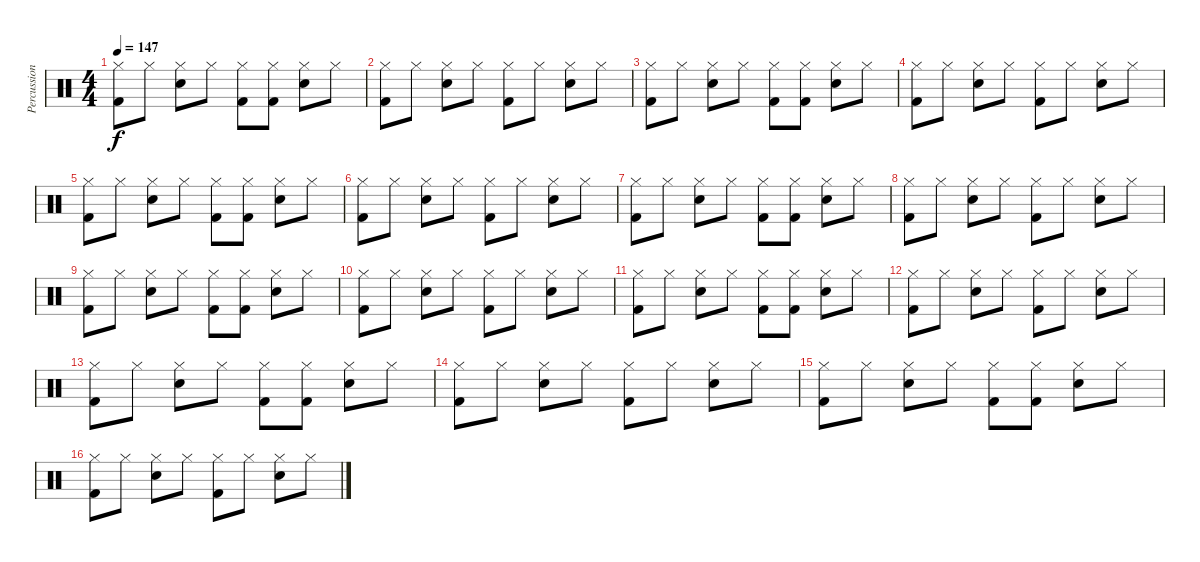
\track ("Percussions" "Percussion") {instrument percussion}
\staff {score}
\articulation defaults
\ts (4 4)
\tempo 147
\clef neutral
\ks c
("Kick (hit) 2" "Hi-Hat (closed)").8{dy f} "Hi-Hat (closed)".8 ("Electric Snare (hit)" "Hi-Hat (closed)").8 "Hi-Hat (closed)".8 ("Kick (hit) 2" "Hi-Hat (closed)").8 ("Kick (hit) 2" "Hi-Hat (closed)").8 ("Electric Snare (hit)" "Hi-Hat (closed)").8 "Hi-Hat (closed)".8 |
("Kick (hit) 2" "Hi-Hat (closed)").8 "Hi-Hat (closed)".8 ("Electric Snare (hit)" "Hi-Hat (closed)").8 "Hi-Hat (closed)".8 ("Kick (hit) 2" "Hi-Hat (closed)").8 "Hi-Hat (closed)".8 ("Electric Snare (hit)" "Hi-Hat (closed)").8 "Hi-Hat (closed)".8 |
("Kick (hit) 2" "Hi-Hat (closed)").8 "Hi-Hat (closed)".8 ("Electric Snare (hit)" "Hi-Hat (closed)").8 "Hi-Hat (closed)".8 ("Kick (hit) 2" "Hi-Hat (closed)").8 ("Kick (hit) 2" "Hi-Hat (closed)").8 ("Electric Snare (hit)" "Hi-Hat (closed)").8 "Hi-Hat (closed)".8 |
("Kick (hit) 2" "Hi-Hat (closed)").8 "Hi-Hat (closed)".8 ("Electric Snare (hit)" "Hi-Hat (closed)").8 "Hi-Hat (closed)".8 ("Kick (hit) 2" "Hi-Hat (closed)").8 "Hi-Hat (closed)".8 ("Electric Snare (hit)" "Hi-Hat (closed)").8 "Hi-Hat (closed)".8 |
("Kick (hit) 2" "Hi-Hat (closed)").8 "Hi-Hat (closed)".8 ("Electric Snare (hit)" "Hi-Hat (closed)").8 "Hi-Hat (closed)".8 ("Kick (hit) 2" "Hi-Hat (closed)").8 ("Kick (hit) 2" "Hi-Hat (closed)").8 ("Electric Snare (hit)" "Hi-Hat (closed)").8 "Hi-Hat (closed)".8 |
("Kick (hit) 2" "Hi-Hat (closed)").8 "Hi-Hat (closed)".8 ("Electric Snare (hit)" "Hi-Hat (closed)").8 "Hi-Hat (closed)".8 ("Kick (hit) 2" "Hi-Hat (closed)").8 "Hi-Hat (closed)".8 ("Electric Snare (hit)" "Hi-Hat (closed)").8 "Hi-Hat (closed)".8 |
("Kick (hit) 2" "Hi-Hat (closed)").8 "Hi-Hat (closed)".8 ("Electric Snare (hit)" "Hi-Hat (closed)").8 "Hi-Hat (closed)".8 ("Kick (hit) 2" "Hi-Hat (closed)").8 ("Kick (hit) 2" "Hi-Hat (closed)").8 ("Electric Snare (hit)" "Hi-Hat (closed)").8 "Hi-Hat (closed)".8 |
("Kick (hit) 2" "Hi-Hat (closed)").8 "Hi-Hat (closed)".8 ("Electric Snare (hit)" "Hi-Hat (closed)").8 "Hi-Hat (closed)".8 ("Kick (hit) 2" "Hi-Hat (closed)").8 "Hi-Hat (closed)".8 ("Electric Snare (hit)" "Hi-Hat (closed)").8 "Hi-Hat (closed)".8 |
("Kick (hit) 2" "Hi-Hat (closed)").8 "Hi-Hat (closed)".8 ("Electric Snare (hit)" "Hi-Hat (closed)").8 "Hi-Hat (closed)".8 ("Kick (hit) 2" "Hi-Hat (closed)").8 ("Kick (hit) 2" "Hi-Hat (closed)").8 ("Electric Snare (hit)" "Hi-Hat (closed)").8 "Hi-Hat (closed)".8 |
("Kick (hit) 2" "Hi-Hat (closed)").8 "Hi-Hat (closed)".8 ("Electric Snare (hit)" "Hi-Hat (closed)").8 "Hi-Hat (closed)".8 ("Kick (hit) 2" "Hi-Hat (closed)").8 "Hi-Hat (closed)".8 ("Electric Snare (hit)" "Hi-Hat (closed)").8 "Hi-Hat (closed)".8 |
("Kick (hit) 2" "Hi-Hat (closed)").8 "Hi-Hat (closed)".8 ("Electric Snare (hit)" "Hi-Hat (closed)").8 "Hi-Hat (closed)".8 ("Kick (hit) 2" "Hi-Hat (closed)").8 ("Kick (hit) 2" "Hi-Hat (closed)").8 ("Electric Snare (hit)" "Hi-Hat (closed)").8 "Hi-Hat (closed)".8 |
("Kick (hit) 2" "Hi-Hat (closed)").8 "Hi-Hat (closed)".8 ("Electric Snare (hit)" "Hi-Hat (closed)").8 "Hi-Hat (closed)".8 ("Kick (hit) 2" "Hi-Hat (closed)").8 "Hi-Hat (closed)".8 ("Electric Snare (hit)" "Hi-Hat (closed)").8 "Hi-Hat (closed)".8 |
("Kick (hit) 2" "Hi-Hat (closed)").8 "Hi-Hat (closed)".8 ("Electric Snare (hit)" "Hi-Hat (closed)").8 "Hi-Hat (closed)".8 ("Kick (hit) 2" "Hi-Hat (closed)").8 ("Kick (hit) 2" "Hi-Hat (closed)").8 ("Electric Snare (hit)" "Hi-Hat (closed)").8 "Hi-Hat (closed)".8 |
("Kick (hit) 2" "Hi-Hat (closed)").8 "Hi-Hat (closed)".8 ("Electric Snare (hit)" "Hi-Hat (closed)").8 "Hi-Hat (closed)".8 ("Kick (hit) 2" "Hi-Hat (closed)").8 "Hi-Hat (closed)".8 ("Electric Snare (hit)" "Hi-Hat (closed)").8 "Hi-Hat (closed)".8 |
("Kick (hit) 2" "Hi-Hat (closed)").8 "Hi-Hat (closed)".8 ("Electric Snare (hit)" "Hi-Hat (closed)").8 "Hi-Hat (closed)".8 ("Kick (hit) 2" "Hi-Hat (closed)").8 ("Kick (hit) 2" "Hi-Hat (closed)").8 ("Electric Snare (hit)" "Hi-Hat (closed)").8 "Hi-Hat (closed)".8 |
("Kick (hit) 2" "Hi-Hat (closed)").8 "Hi-Hat (closed)".8 ("Electric Snare (hit)" "Hi-Hat (closed)").8 "Hi-Hat (closed)".8 ("Kick (hit) 2" "Hi-Hat (closed)").8 "Hi-Hat (closed)".8 ("Electric Snare (hit)" "Hi-Hat (closed)").8 "Hi-Hat (closed)".8
